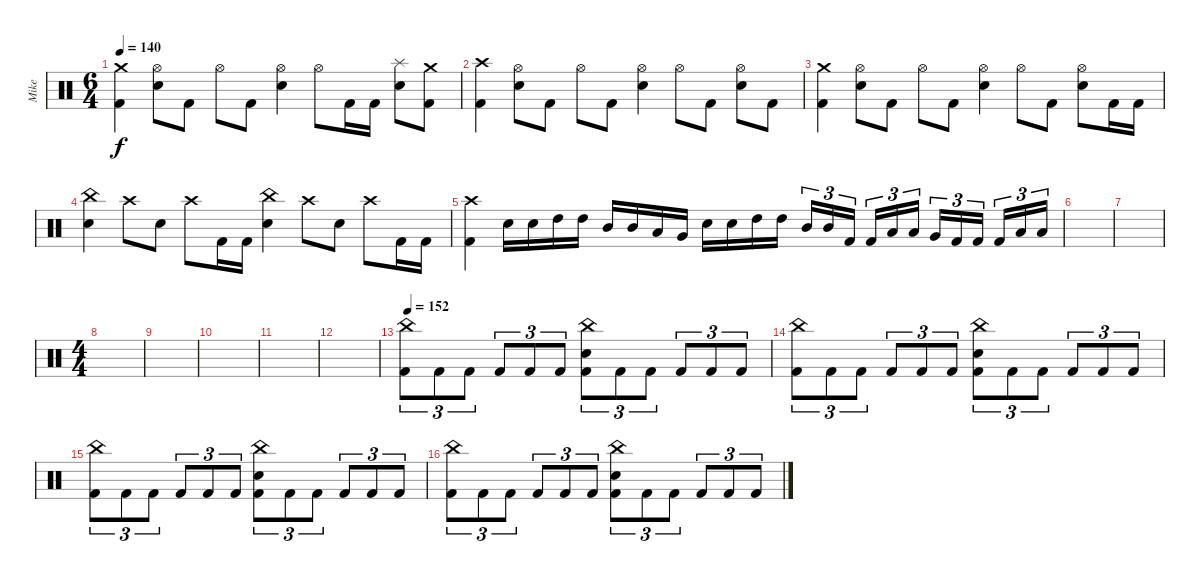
\track ("Mike" "Mike") {instrument percussion}
\staff {score}
\articulation defaults
\ts (6 4)
\tempo 140
\clef neutral
\ks c
("Kick (hit) 2" "Crash medium (hit)").4{dy f} ("Electric Snare (hit)" "Hi-Hat (open)").8 "Kick (hit) 2".8 "Hi-Hat (open)".8 "Kick (hit) 2".8 ("Electric Snare (hit)" "Hi-Hat (open)").4 "Hi-Hat (open)".8 "Kick (hit) 2".16 "Kick (hit) 2".16 ("Electric Snare (hit)" "Splash (hit)").8 ("Kick (hit) 2" "Crash medium (hit)").8 |
("Kick (hit) 2" "Crash high (hit)").4 ("Electric Snare (hit)" "Hi-Hat (open)").8 "Kick (hit) 2".8 "Hi-Hat (open)".8 "Kick (hit) 2".8 ("Electric Snare (hit)" "Hi-Hat (open)").4 "Hi-Hat (open)".8 "Kick (hit) 2".8 ("Electric Snare (hit)" "Hi-Hat (open)").8 "Kick (hit) 2".8 |
("Kick (hit) 2" "Crash medium (hit)").4 ("Electric Snare (hit)" "Hi-Hat (open)").8 "Kick (hit) 2".8 "Hi-Hat (open)".8 "Kick (hit) 2".8 ("Electric Snare (hit)" "Hi-Hat (open)").4 "Hi-Hat (open)".8 "Kick (hit) 2".8 ("Electric Snare (hit)" "Hi-Hat (open)").8 "Kick (hit) 2".16 "Kick (hit) 2".16 |
("Electric Snare (hit)" "China (hit)").4 "Crash high (hit)".8 "Electric Snare (hit)".8 "Crash high (hit)".8 "Kick (hit) 2".16 "Kick (hit) 2".16 ("Electric Snare (hit)" "China (hit)").4 "Crash high (hit)".8 "Electric Snare (hit)".8 "Crash high (hit)".8 "Kick (hit) 2".16 "Kick (hit) 2".16 |
("Kick (hit) 2" "Crash high (hit)").4 "Electric Snare (hit)".16 "Electric Snare (hit)".16 "High Tom (hit)".16 "High Tom (hit)".16 "Mid Tom (hit)".16 "Mid Tom (hit)".16 "Low Tom (hit)".16 "Very Low Tom (hit)".16 "Electric Snare (hit)".16 "Electric Snare (hit)".16 "High Tom (hit)".16 "High Tom (hit)".16{beam splitsecondary} "Mid Tom (hit)".16{tu (3 2)} "Mid Tom (hit)".16{tu (3 2)} "Kick (hit) 2".16{tu (3 2) beam splitsecondary} "Kick (hit) 2".16{tu (3 2)} "Low Tom (hit)".16{tu (3 2)} "Low Tom (hit)".16{tu (3 2) beam splitsecondary} "Very Low Tom (hit)".16{tu (3 2)} "Kick (hit) 2".16{tu (3 2)} "Kick (hit) 2".16{tu (3 2) beam splitsecondary} "Kick (hit) 2".16{tu (3 2)} "Low Floor Tom (hit)".16{tu (3 2)} "Low Floor Tom (hit)".16{tu (3 2)} |
|
|
\ts (4 4)
|
|
|
|
|
\tempo 152
("Kick (hit) 2" "China (hit)").8{tu (3 2)} "Kick (hit) 2".8{tu (3 2)} "Kick (hit) 2".8{tu (3 2)} "Kick (hit) 2".8{tu (3 2)} "Kick (hit) 2".8{tu (3 2)} "Kick (hit) 2".8{tu (3 2)} ("Kick (hit) 2" "Electric Snare (hit)" "China (hit)").8{tu (3 2)} "Kick (hit) 2".8{tu (3 2)} "Kick (hit) 2".8{tu (3 2)} "Kick (hit) 2".8{tu (3 2)} "Kick (hit) 2".8{tu (3 2)} "Kick (hit) 2".8{tu (3 2)} |
("Kick (hit) 2" "China (hit)").8{tu (3 2)} "Kick (hit) 2".8{tu (3 2)} "Kick (hit) 2".8{tu (3 2)} "Kick (hit) 2".8{tu (3 2)} "Kick (hit) 2".8{tu (3 2)} "Kick (hit) 2".8{tu (3 2)} ("Kick (hit) 2" "Electric Snare (hit)" "China (hit)").8{tu (3 2)} "Kick (hit) 2".8{tu (3 2)} "Kick (hit) 2".8{tu (3 2)} "Kick (hit) 2".8{tu (3 2)} "Kick (hit) 2".8{tu (3 2)} "Kick (hit) 2".8{tu (3 2)} |
("Kick (hit) 2" "China (hit)").8{tu (3 2)} "Kick (hit) 2".8{tu (3 2)} "Kick (hit) 2".8{tu (3 2)} "Kick (hit) 2".8{tu (3 2)} "Kick (hit) 2".8{tu (3 2)} "Kick (hit) 2".8{tu (3 2)} ("Kick (hit) 2" "Electric Snare (hit)" "China (hit)").8{tu (3 2)} "Kick (hit) 2".8{tu (3 2)} "Kick (hit) 2".8{tu (3 2)} "Kick (hit) 2".8{tu (3 2)} "Kick (hit) 2".8{tu (3 2)} "Kick (hit) 2".8{tu (3 2)} |
("Kick (hit) 2" "China (hit)").8{tu (3 2)} "Kick (hit) 2".8{tu (3 2)} "Kick (hit) 2".8{tu (3 2)} "Kick (hit) 2".8{tu (3 2)} "Kick (hit) 2".8{tu (3 2)} "Kick (hit) 2".8{tu (3 2)} ("Kick (hit) 2" "Electric Snare (hit)" "China (hit)").8{tu (3 2)} "Kick (hit) 2".8{tu (3 2)} "Kick (hit) 2".8{tu (3 2)} "Kick (hit) 2".8{tu (3 2)} "Kick (hit) 2".8{tu (3 2)} "Kick (hit) 2".8{tu (3 2)}
